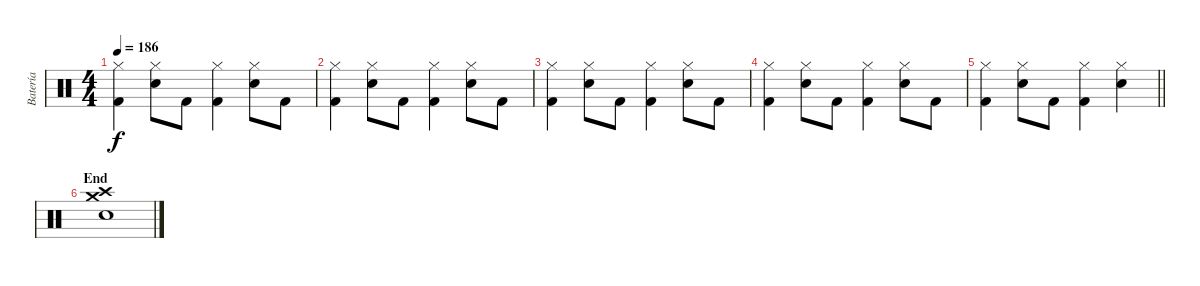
\track ("Batería" "Batería") {instrument percussion}
\staff {score}
\articulation defaults
\ts (4 4)
\tempo 186
\clef neutral
\ks c
("Hi-Hat (closed)" "Kick (hit) 2").4{dy f} ("Hi-Hat (closed)" "Snare (hit) 2").8 "Kick (hit) 2".8 ("Hi-Hat (closed)" "Kick (hit) 2").4 ("Hi-Hat (closed)" "Snare (hit) 2").8 "Kick (hit) 2".8 |
("Hi-Hat (closed)" "Kick (hit) 2").4 ("Hi-Hat (closed)" "Snare (hit) 2").8 "Kick (hit) 2".8 ("Hi-Hat (closed)" "Kick (hit) 2").4 ("Hi-Hat (closed)" "Snare (hit) 2").8 "Kick (hit) 2".8 |
("Hi-Hat (closed)" "Kick (hit) 2").4 ("Hi-Hat (closed)" "Snare (hit) 2").8 "Kick (hit) 2".8 ("Hi-Hat (closed)" "Kick (hit) 2").4 ("Hi-Hat (closed)" "Snare (hit) 2").8 "Kick (hit) 2".8 |
("Hi-Hat (closed)" "Kick (hit) 2").4 ("Hi-Hat (closed)" "Snare (hit) 2").8 "Kick (hit) 2".8 ("Hi-Hat (closed)" "Kick (hit) 2").4 ("Hi-Hat (closed)" "Snare (hit) 2").8 "Kick (hit) 2".8 |
\barLineRight lightlight
("Hi-Hat (closed)" "Kick (hit) 2").4 ("Hi-Hat (closed)" "Snare (hit) 2").8 "Kick (hit) 2".8 ("Hi-Hat (closed)" "Kick (hit) 2").4 ("Hi-Hat (closed)" "Snare (hit) 2").4 |
\section ("" "End")
("Crash medium (hit)" "Crash high (hit)" "Snare (hit) 2").1
